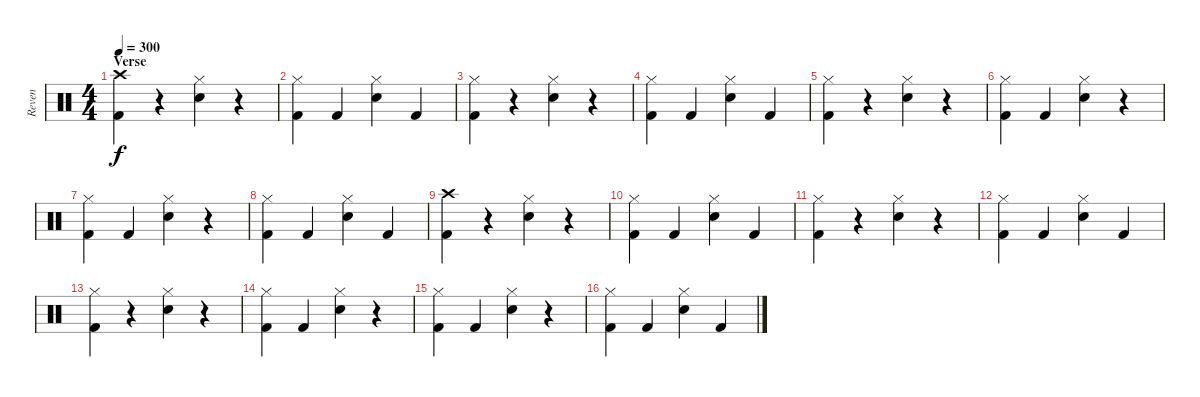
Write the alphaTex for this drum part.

\track ("Reven" "Reven") {instrument percussion}
\staff {score}
\articulation defaults
\ts (4 4)
\section ("" "Verse")
\tempo 300
\clef neutral
\ks c
("Crash high (hit)" "Kick (hit) 2").4{dy f} r.4 ("Hi-Hat (closed)" "Electric Snare (hit)").4 r.4 |
("Hi-Hat (closed)" "Kick (hit) 2").4 "Kick (hit) 2".4 ("Hi-Hat (closed)" "Electric Snare (hit)").4 "Kick (hit) 2".4 |
("Hi-Hat (closed)" "Kick (hit) 2").4 r.4 ("Hi-Hat (closed)" "Electric Snare (hit)").4 r.4 |
("Hi-Hat (closed)" "Kick (hit) 2").4 "Kick (hit) 2".4 ("Hi-Hat (closed)" "Electric Snare (hit)").4 "Kick (hit) 2".4 |
("Hi-Hat (closed)" "Kick (hit) 2").4 r.4 ("Hi-Hat (closed)" "Electric Snare (hit)").4 r.4 |
("Hi-Hat (closed)" "Kick (hit) 2").4 "Kick (hit) 2".4 ("Hi-Hat (closed)" "Electric Snare (hit)").4 r.4 |
("Hi-Hat (closed)" "Kick (hit) 2").4 "Kick (hit) 2".4 ("Hi-Hat (closed)" "Electric Snare (hit)").4 r.4 |
("Hi-Hat (closed)" "Kick (hit) 2").4 "Kick (hit) 2".4 ("Hi-Hat (closed)" "Electric Snare (hit)").4 "Kick (hit) 2".4 |
("Crash high (hit)" "Kick (hit) 2").4 r.4 ("Hi-Hat (closed)" "Electric Snare (hit)").4 r.4 |
("Hi-Hat (closed)" "Kick (hit) 2").4 "Kick (hit) 2".4 ("Hi-Hat (closed)" "Electric Snare (hit)").4 "Kick (hit) 2".4 |
("Hi-Hat (closed)" "Kick (hit) 2").4 r.4 ("Hi-Hat (closed)" "Electric Snare (hit)").4 r.4 |
("Hi-Hat (closed)" "Kick (hit) 2").4 "Kick (hit) 2".4 ("Hi-Hat (closed)" "Electric Snare (hit)").4 "Kick (hit) 2".4 |
("Hi-Hat (closed)" "Kick (hit) 2").4 r.4 ("Hi-Hat (closed)" "Electric Snare (hit)").4 r.4 |
("Hi-Hat (closed)" "Kick (hit) 2").4 "Kick (hit) 2".4 ("Hi-Hat (closed)" "Electric Snare (hit)").4 r.4 |
("Hi-Hat (closed)" "Kick (hit) 2").4 "Kick (hit) 2".4 ("Hi-Hat (closed)" "Electric Snare (hit)").4 r.4 |
("Hi-Hat (closed)" "Kick (hit) 2").4 "Kick (hit) 2".4 ("Hi-Hat (closed)" "Electric Snare (hit)").4 "Kick (hit) 2".4
